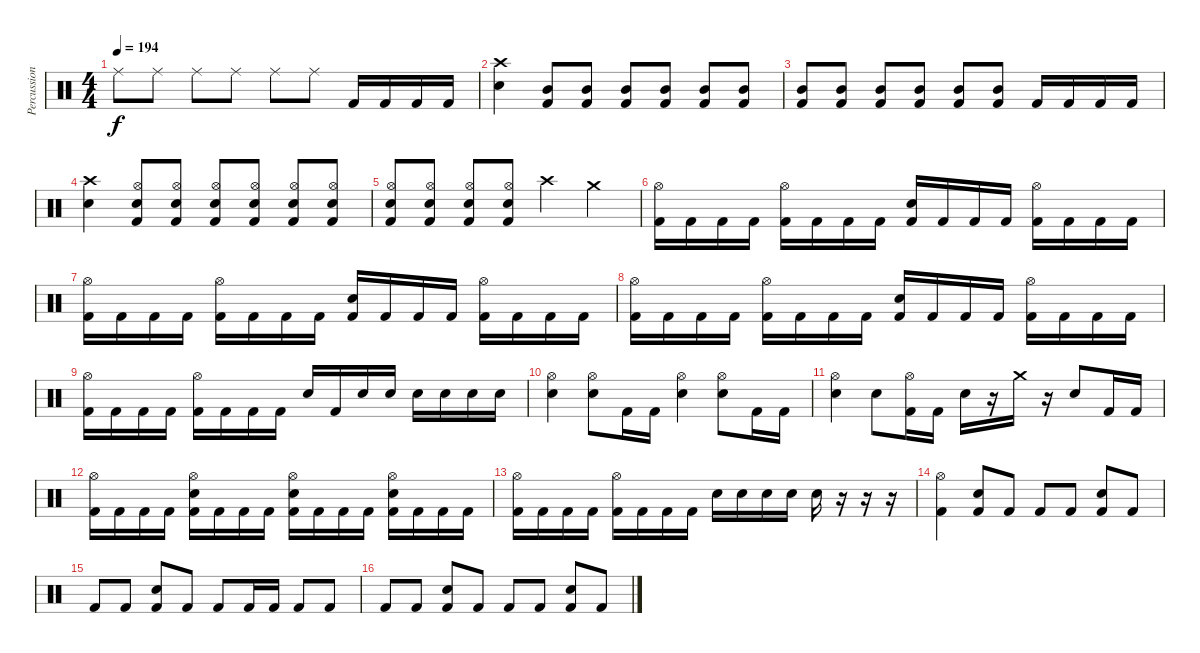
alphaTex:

\track ("Percussions" "Percussion") {instrument percussion}
\staff {score}
\articulation defaults
\ts (4 4)
\tempo 194
\clef neutral
\ks c "Ride (middle)".8{dy f} "Ride (middle)".8 "Ride (middle)".8 "Ride (middle)".8 "Ride (middle)".8 "Ride (middle)".8 "Kick (hit) 2".16 "Kick (hit) 2".16 "Kick (hit) 2".16 "Kick (hit) 2".16
|
("Crash high (hit)" "Electric Snare (hit)").4 ("Mid Tom (hit)" "Kick (hit) 2").8 ("Mid Tom (hit)" "Kick (hit) 2").8 ("Mid Tom (hit)" "Kick (hit) 2").8 ("Mid Tom (hit)" "Kick (hit) 2").8 ("Mid Tom (hit)" "Kick (hit) 2").8 ("Mid Tom (hit)" "Kick (hit) 2").8 |
("Mid Tom (hit)" "Kick (hit) 2").8 ("Mid Tom (hit)" "Kick (hit) 2").8 ("Mid Tom (hit)" "Kick (hit) 2").8 ("Mid Tom (hit)" "Kick (hit) 2").8 ("Mid Tom (hit)" "Kick (hit) 2").8 ("Mid Tom (hit)" "Kick (hit) 2").8 "Kick (hit) 2".16 "Kick (hit) 2".16 "Kick (hit) 2".16 "Kick (hit) 2".16 |
("Crash high (hit)" "Electric Snare (hit)").4 ("Hi-Hat (open)" "Snare (hit) 2" "Kick (hit) 2").8 ("Hi-Hat (open)" "Snare (hit) 2" "Kick (hit) 2").8 ("Hi-Hat (open)" "Snare (hit) 2" "Kick (hit) 2").8 ("Hi-Hat (open)" "Snare (hit) 2" "Kick (hit) 2").8 ("Hi-Hat (open)" "Snare (hit) 2" "Kick (hit) 2").8 ("Hi-Hat (open)" "Snare (hit) 2" "Kick (hit) 2").8 |
("Hi-Hat (open)" "Snare (hit) 2" "Kick (hit) 2").8 ("Hi-Hat (open)" "Snare (hit) 2" "Kick (hit) 2").8 ("Hi-Hat (open)" "Snare (hit) 2" "Kick (hit) 2").8 ("Hi-Hat (open)" "Snare (hit) 2" "Kick (hit) 2").8 "Crash high (hit)".4 "Crash medium (hit)".4 |
("Hi-Hat (open)" "Kick (hit) 2").16 "Kick (hit) 2".16 "Kick (hit) 2".16 "Kick (hit) 2".16 ("Hi-Hat (open)" "Kick (hit) 2").16 "Kick (hit) 2".16 "Kick (hit) 2".16 "Kick (hit) 2".16 ("Electric Snare (hit)" "Kick (hit) 2").16 "Kick (hit) 2".16 "Kick (hit) 2".16 "Kick (hit) 2".16 ("Hi-Hat (open)" "Kick (hit) 2").16 "Kick (hit) 2".16 "Kick (hit) 2".16 "Kick (hit) 2".16 |
("Hi-Hat (open)" "Kick (hit) 2").16 "Kick (hit) 2".16 "Kick (hit) 2".16 "Kick (hit) 2".16 ("Hi-Hat (open)" "Kick (hit) 2").16 "Kick (hit) 2".16 "Kick (hit) 2".16 "Kick (hit) 2".16 ("Electric Snare (hit)" "Kick (hit) 2").16 "Kick (hit) 2".16 "Kick (hit) 2".16 "Kick (hit) 2".16 ("Hi-Hat (open)" "Kick (hit) 2").16 "Kick (hit) 2".16 "Kick (hit) 2".16 "Kick (hit) 2".16 |
("Hi-Hat (open)" "Kick (hit) 2").16 "Kick (hit) 2".16 "Kick (hit) 2".16 "Kick (hit) 2".16 ("Hi-Hat (open)" "Kick (hit) 2").16 "Kick (hit) 2".16 "Kick (hit) 2".16 "Kick (hit) 2".16 ("Electric Snare (hit)" "Kick (hit) 2").16 "Kick (hit) 2".16 "Kick (hit) 2".16 "Kick (hit) 2".16 ("Hi-Hat (open)" "Kick (hit) 2").16 "Kick (hit) 2".16 "Kick (hit) 2".16 "Kick (hit) 2".16 |
("Hi-Hat (open)" "Kick (hit) 2").16 "Kick (hit) 2".16 "Kick (hit) 2".16 "Kick (hit) 2".16 ("Hi-Hat (open)" "Kick (hit) 2").16 "Kick (hit) 2".16 "Kick (hit) 2".16 "Kick (hit) 2".16 "Electric Snare (hit)".16 "Kick (hit) 2".16 "Electric Snare (hit)".16 "Electric Snare (hit)".16 "Electric Snare (hit)".16 "Electric Snare (hit)".16 "Electric Snare (hit)".16 "Electric Snare (hit)".16 |
("Hi-Hat (open)" "Electric Snare (hit)").4 ("Hi-Hat (open)" "Electric Snare (hit)").8 "Kick (hit) 2".16 "Kick (hit) 2".16 ("Hi-Hat (open)" "Electric Snare (hit)").4 ("Hi-Hat (open)" "Electric Snare (hit)").8 "Kick (hit) 2".16 "Kick (hit) 2".16 |
("Hi-Hat (open)" "Electric Snare (hit)").4 "Electric Snare (hit)".8 ("Hi-Hat (open)" "Kick (hit) 2").16 "Kick (hit) 2".16 "Electric Snare (hit)".16 r.16 "Crash medium (hit)".16 r.16 "Electric Snare (hit)".8 "Kick (hit) 2".16 "Kick (hit) 2".16 |
("Hi-Hat (open)" "Kick (hit) 2").16 "Kick (hit) 2".16 "Kick (hit) 2".16 "Kick (hit) 2".16 ("Hi-Hat (open)" "Electric Snare (hit)" "Kick (hit) 2").16 "Kick (hit) 2".16 "Kick (hit) 2".16 "Kick (hit) 2".16 ("Hi-Hat (open)" "Electric Snare (hit)" "Kick (hit) 2").16 "Kick (hit) 2".16 "Kick (hit) 2".16 "Kick (hit) 2".16 ("Hi-Hat (open)" "Electric Snare (hit)" "Kick (hit) 2").16 "Kick (hit) 2".16 "Kick (hit) 2".16 "Kick (hit) 2".16 |
("Hi-Hat (open)" "Kick (hit) 2").16 "Kick (hit) 2".16 "Kick (hit) 2".16 "Kick (hit) 2".16 ("Hi-Hat (open)" "Kick (hit) 2").16 "Kick (hit) 2".16 "Kick (hit) 2".16 "Kick (hit) 2".16 "Snare (hit) 2".16 "Snare (hit) 2".16 "Snare (hit) 2".16 "Snare (hit) 2".16 "Snare (hit) 2".16 r.16 r.16 r.16 |
("Hi-Hat (open)" "Kick (hit) 2").4 ("Snare (hit) 2" "Kick (hit) 2").8 "Kick (hit) 2".8 "Kick (hit) 2".8 "Kick (hit) 2".8 ("Snare (hit) 2" "Kick (hit) 2").8 "Kick (hit) 2".8 |
"Kick (hit) 2".8 "Kick (hit) 2".8 ("Snare (hit) 2" "Kick (hit) 2").8 "Kick (hit) 2".8 "Kick (hit) 2".8 "Kick (hit) 2".16 "Kick (hit) 2".16 "Kick (hit) 2".8 "Kick (hit) 2".8 |
"Kick (hit) 2".8 "Kick (hit) 2".8 ("Snare (hit) 2" "Kick (hit) 2").8 "Kick (hit) 2".8 "Kick (hit) 2".8 "Kick (hit) 2".8 ("Snare (hit) 2" "Kick (hit) 2").8 "Kick (hit) 2".8
